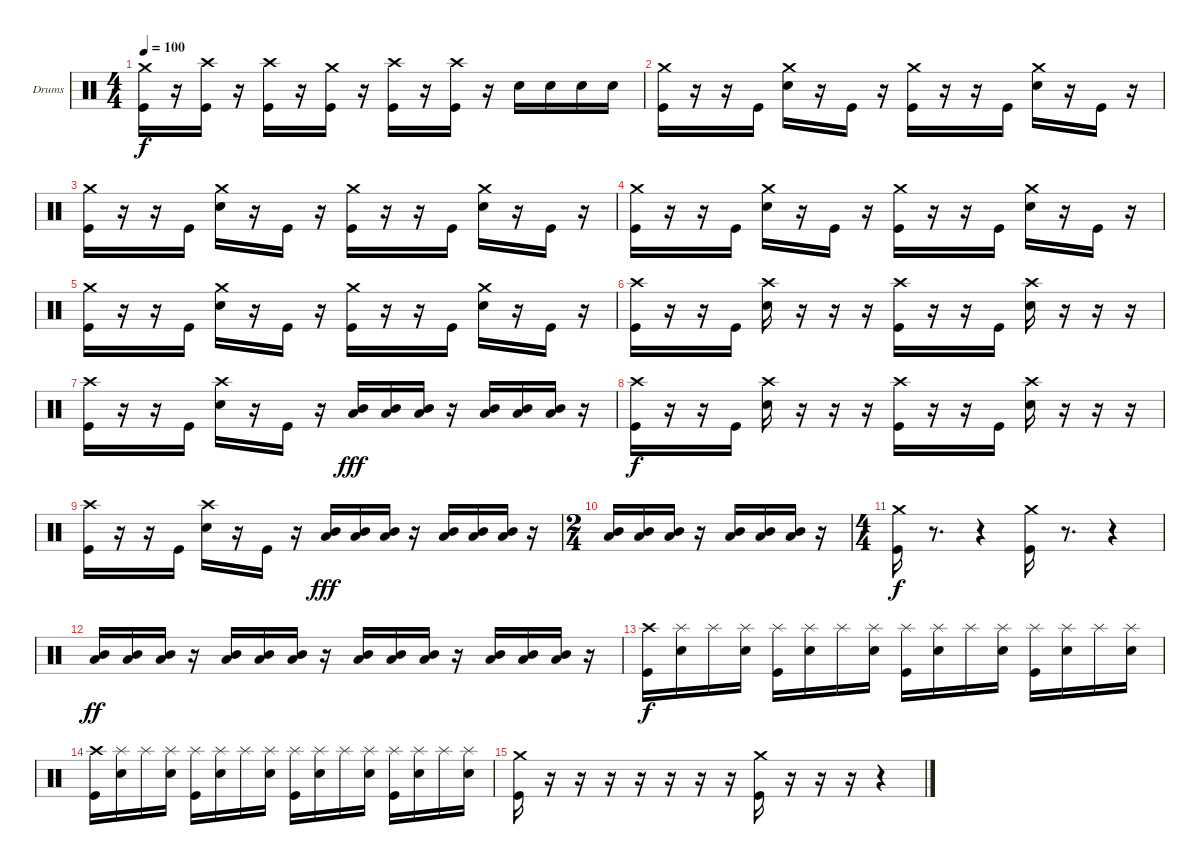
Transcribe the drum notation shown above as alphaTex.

\bracketExtendMode groupsimilarinstruments
\firstSystemTrackNameOrientation horizontal
\otherSystemsTrackNameOrientation horizontal
\track ("Lars Ulrich (Drum)" "Drums") {instrument percussion}
\staff {score}
\articulation defaults
\ts (4 4)
\tempo 100
\clef neutral
\scale
0.333333
\ks c
("Crash medium (hit)" "Kick (hit)").16{dy f} r.16 ("Crash high (hit)" "Kick (hit)").16 r.16 ("Crash high (hit)" "Kick (hit)").16 r.16 ("Crash medium (hit)" "Kick (hit)").16 r.16 ("Crash high (hit)" "Kick (hit)").16 r.16 ("Crash high (hit)" "Kick (hit)").16 r.16 "Snare (hit) 2".16 "Snare (hit) 2".16 "Snare (hit) 2".16 "Snare (hit) 2".16 |
\scale
0.333333 ("Crash medium (hit)" "Kick (hit)").16 r.16 r.16 "Kick (hit)".16 ("Crash medium (hit)" "Snare (hit) 2").16 r.16 "Kick (hit)".16 r.16 ("Crash medium (hit)" "Kick (hit)").16 r.16 r.16 "Kick (hit)".16 ("Crash medium (hit)" "Snare (hit) 2").16 r.16 "Kick (hit)".16 r.16 |
\scale
0.333333 ("Crash medium (hit)" "Kick (hit)").16 r.16 r.16 "Kick (hit)".16 ("Crash medium (hit)" "Snare (hit) 2").16 r.16 "Kick (hit)".16 r.16 ("Crash medium (hit)" "Kick (hit)").16 r.16 r.16 "Kick (hit)".16 ("Crash medium (hit)" "Snare (hit) 2").16 r.16 "Kick (hit)".16 r.16 |
\scale
0.333333 ("Crash medium (hit)" "Kick (hit)").16 r.16 r.16 "Kick (hit)".16 ("Crash medium (hit)" "Snare (hit) 2").16 r.16 "Kick (hit)".16 r.16 ("Crash medium (hit)" "Kick (hit)").16 r.16 r.16 "Kick (hit)".16 ("Crash medium (hit)" "Snare (hit) 2").16 r.16 "Kick (hit)".16 r.16 |
\scale
0.333333 ("Crash medium (hit)" "Kick (hit)").16 r.16 r.16 "Kick (hit)".16 ("Crash medium (hit)" "Snare (hit) 2").16 r.16 "Kick (hit)".16 r.16 ("Crash medium (hit)" "Kick (hit)").16 r.16 r.16 "Kick (hit)".16 ("Crash medium (hit)" "Snare (hit) 2").16 r.16 "Kick (hit)".16 r.16 |
\scale
0.333333 ("Crash high (hit)" "Kick (hit)").16 r.16 r.16 "Kick (hit)".16 ("Crash high (hit)" "Snare (hit) 2").16 r.16 r.16 r.16 ("Crash high (hit)" "Kick (hit)").16 r.16 r.16 "Kick (hit)".16 ("Crash high (hit)" "Snare (hit) 2").16 r.16 r.16 r.16 |
\scale
0.333333 ("Crash high (hit)" "Kick (hit)").16 r.16 r.16 "Kick (hit)".16 ("Crash high (hit)" "Snare (hit) 2").16 r.16 "Kick (hit)".16 r.16 ("Low Tom (hit)" "Mid Tom (hit)").16{dy fff} ("Low Tom (hit)" "Mid Tom (hit)").16 ("Low Tom (hit)" "Mid Tom (hit)").16 r.16 ("Low Tom (hit)" "Mid Tom (hit)").16 ("Low Tom (hit)" "Mid Tom (hit)").16 ("Low Tom (hit)" "Mid Tom (hit)").16 r.16 |
\scale
0.333333 ("Crash high (hit)" "Kick (hit)").16{dy f} r.16 r.16 "Kick (hit)".16 ("Crash high (hit)" "Snare (hit) 2").16 r.16 r.16 r.16 ("Crash high (hit)" "Kick (hit)").16 r.16 r.16 "Kick (hit)".16 ("Crash high (hit)" "Snare (hit) 2").16 r.16 r.16 r.16 |
\scale
0.333333 ("Crash high (hit)" "Kick (hit)").16 r.16 r.16 "Kick (hit)".16 ("Crash high (hit)" "Snare (hit) 2").16 r.16 "Kick (hit)".16 r.16 ("Low Tom (hit)" "Mid Tom (hit)").16{dy fff} ("Low Tom (hit)" "Mid Tom (hit)").16 ("Low Tom (hit)" "Mid Tom (hit)").16 r.16 ("Low Tom (hit)" "Mid Tom (hit)").16 ("Low Tom (hit)" "Mid Tom (hit)").16 ("Low Tom (hit)" "Mid Tom (hit)").16 r.16 |
\ts (2 4)
\scale
0.391473 ("Low Tom (hit)" "Mid Tom (hit)").16 ("Low Tom (hit)" "Mid Tom (hit)").16 ("Low Tom (hit)" "Mid Tom (hit)").16 r.16 ("Low Tom (hit)" "Mid Tom (hit)").16 ("Low Tom (hit)" "Mid Tom (hit)").16 ("Low Tom (hit)" "Mid Tom (hit)").16 r.16 |
\ts (4 4)
\scale
0.391473 ("Crash medium (hit)" "Kick (hit)").16{dy f} r.8{d} r.4 ("Crash medium (hit)" "Kick (hit)").16 r.8{d} r.4 |
\scale
0.217054 ("Low Tom (hit)" "Mid Tom (hit)").16{dy ff} ("Low Tom (hit)" "Mid Tom (hit)").16 ("Low Tom (hit)" "Mid Tom (hit)").16 r.16 ("Low Tom (hit)" "Mid Tom (hit)").16 ("Low Tom (hit)" "Mid Tom (hit)").16 ("Low Tom (hit)" "Mid Tom (hit)").16 r.16 ("Low Tom (hit)" "Mid Tom (hit)").16 ("Low Tom (hit)" "Mid Tom (hit)").16 ("Low Tom (hit)" "Mid Tom (hit)").16 r.16 ("Low Tom (hit)" "Mid Tom (hit)").16 ("Low Tom (hit)" "Mid Tom (hit)").16 ("Low Tom (hit)" "Mid Tom (hit)").16 r.16 |
\scale
0.333333 ("Crash high (hit)" "Kick (hit)").16{dy f} ("Splash (hit)" "Snare (hit) 2").16 "Splash (hit)".16 ("Splash (hit)" "Snare (hit) 2").16 ("Splash (hit)" "Kick (hit)").16 ("Splash (hit)" "Snare (hit) 2").16 "Splash (hit)".16 ("Splash (hit)" "Snare (hit) 2").16 ("Splash (hit)" "Kick (hit)").16 ("Splash (hit)" "Snare (hit) 2").16 "Splash (hit)".16 ("Splash (hit)" "Snare (hit) 2").16 ("Splash (hit)" "Kick (hit)").16 ("Splash (hit)" "Snare (hit) 2").16 "Splash (hit)".16 ("Splash (hit)" "Snare (hit) 2").16 |
\scale
0.333333 ("Crash high (hit)" "Kick (hit)").16 ("Splash (hit)" "Snare (hit) 2").16 "Splash (hit)".16 ("Splash (hit)" "Snare (hit) 2").16 ("Splash (hit)" "Kick (hit)").16 ("Splash (hit)" "Snare (hit) 2").16 "Splash (hit)".16 ("Splash (hit)" "Snare (hit) 2").16 ("Splash (hit)" "Kick (hit)").16 ("Splash (hit)" "Snare (hit) 2").16 "Splash (hit)".16 ("Splash (hit)" "Snare (hit) 2").16 ("Splash (hit)" "Kick (hit)").16 ("Splash (hit)" "Snare (hit) 2").16 "Splash (hit)".16 ("Splash (hit)" "Snare (hit) 2").16 |
\scale
0.333333 ("Crash medium (hit)" "Kick (hit)").16 r.16 r.16 r.16 r.16 r.16 r.16 r.16 ("Crash medium (hit)" "Kick (hit)").16 r.16 r.16 r.16 r.4 |
\scale
0.333333
